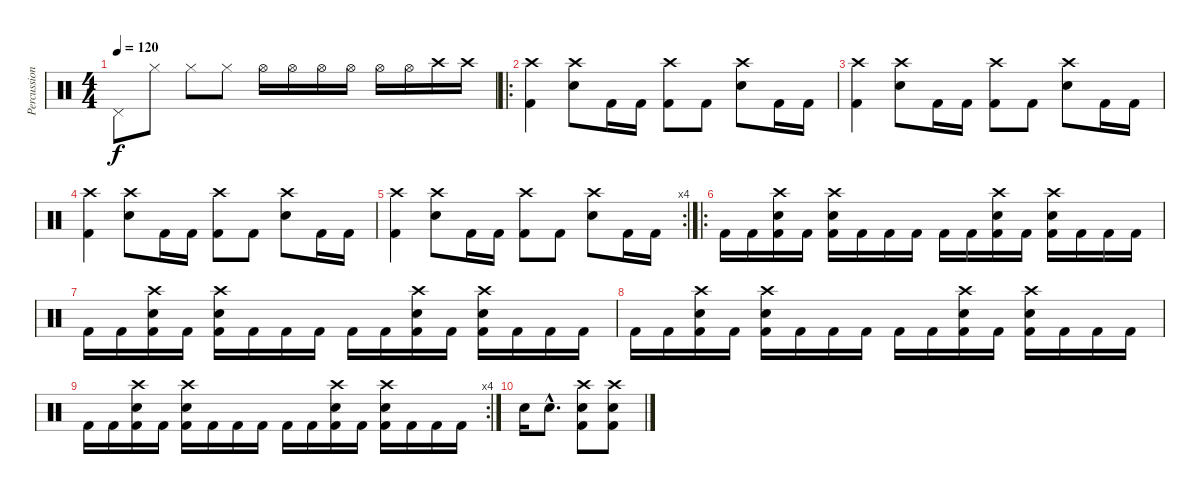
\track ("Percussion" "Percussion") {instrument percussion}
\staff {score}
\articulation defaults
\ts (4 4)
\tempo 120
\clef neutral
\ks c "Pedal Hi-Hat (hit)".8{dy f} "Hi-Hat (closed)".8 "Hi-Hat (closed)".8 "Hi-Hat (closed)".8 "Hi-Hat (open)".16 "Hi-Hat (open)".16 "Hi-Hat (open)".16 "Hi-Hat (open)".16 "Hi-Hat (open)".16 "Hi-Hat (open)".16 "Crash high (hit)".16 "Crash high (hit)".16
|
\ro
("Crash high (hit)" "Kick (hit) 2").4 ("Crash high (hit)" "Snare (hit) 2").8 "Kick (hit) 2".16 "Kick (hit) 2".16 ("Crash high (hit)" "Kick (hit) 2").8 "Kick (hit) 2".8 ("Crash high (hit)" "Snare (hit) 2").8 "Kick (hit) 2".16 "Kick (hit) 2".16 |
("Crash high (hit)" "Kick (hit) 2").4 ("Crash high (hit)" "Snare (hit) 2").8 "Kick (hit) 2".16 "Kick (hit) 2".16 ("Crash high (hit)" "Kick (hit) 2").8 "Kick (hit) 2".8 ("Crash high (hit)" "Snare (hit) 2").8 "Kick (hit) 2".16 "Kick (hit) 2".16 |
("Crash high (hit)" "Kick (hit) 2").4 ("Crash high (hit)" "Snare (hit) 2").8 "Kick (hit) 2".16 "Kick (hit) 2".16 ("Crash high (hit)" "Kick (hit) 2").8 "Kick (hit) 2".8 ("Crash high (hit)" "Snare (hit) 2").8 "Kick (hit) 2".16 "Kick (hit) 2".16 |
\rc 4
("Crash high (hit)" "Kick (hit) 2").4 ("Crash high (hit)" "Snare (hit) 2").8 "Kick (hit) 2".16 "Kick (hit) 2".16 ("Crash high (hit)" "Kick (hit) 2").8 "Kick (hit) 2".8 ("Crash high (hit)" "Snare (hit) 2").8 "Kick (hit) 2".16 "Kick (hit) 2".16 |
\ro "Kick (hit) 2".16 "Kick (hit) 2".16
("Crash high (hit)" "Snare (hit) 2" "Kick (hit) 2").16 "Kick (hit) 2".16 ("Crash high (hit)" "Snare (hit) 2" "Kick (hit) 2").16 "Kick (hit) 2".16 "Kick (hit) 2".16 "Kick (hit) 2".16 "Kick (hit) 2".16 "Kick (hit) 2".16 ("Crash high (hit)" "Snare (hit) 2" "Kick (hit) 2").16 "Kick (hit) 2".16 ("Crash high (hit)" "Snare (hit) 2" "Kick (hit) 2").16 "Kick (hit) 2".16 "Kick (hit) 2".16 "Kick (hit) 2".16 |
"Kick (hit) 2".16 "Kick (hit) 2".16 ("Crash high (hit)" "Snare (hit) 2" "Kick (hit) 2").16 "Kick (hit) 2".16 ("Crash high (hit)" "Snare (hit) 2" "Kick (hit) 2").16 "Kick (hit) 2".16 "Kick (hit) 2".16 "Kick (hit) 2".16 "Kick (hit) 2".16 "Kick (hit) 2".16 ("Crash high (hit)" "Snare (hit) 2" "Kick (hit) 2").16 "Kick (hit) 2".16 ("Crash high (hit)" "Snare (hit) 2" "Kick (hit) 2").16 "Kick (hit) 2".16 "Kick (hit) 2".16 "Kick (hit) 2".16 |
"Kick (hit) 2".16 "Kick (hit) 2".16 ("Crash high (hit)" "Snare (hit) 2" "Kick (hit) 2").16 "Kick (hit) 2".16 ("Crash high (hit)" "Snare (hit) 2" "Kick (hit) 2").16 "Kick (hit) 2".16 "Kick (hit) 2".16 "Kick (hit) 2".16 "Kick (hit) 2".16 "Kick (hit) 2".16 ("Crash high (hit)" "Snare (hit) 2" "Kick (hit) 2").16 "Kick (hit) 2".16 ("Crash high (hit)" "Snare (hit) 2" "Kick (hit) 2").16 "Kick (hit) 2".16 "Kick (hit) 2".16 "Kick (hit) 2".16 |
\rc 4 "Kick (hit) 2".16 "Kick (hit) 2".16
("Crash high (hit)" "Snare (hit) 2" "Kick (hit) 2").16 "Kick (hit) 2".16 ("Crash high (hit)" "Snare (hit) 2" "Kick (hit) 2").16 "Kick (hit) 2".16 "Kick (hit) 2".16 "Kick (hit) 2".16 "Kick (hit) 2".16 "Kick (hit) 2".16 ("Crash high (hit)" "Snare (hit) 2" "Kick (hit) 2").16 "Kick (hit) 2".16 ("Crash high (hit)" "Snare (hit) 2" "Kick (hit) 2").16 "Kick (hit) 2".16 "Kick (hit) 2".16 "Kick (hit) 2".16 |
"Snare (hit) 2".16 "Snare (hit) 2"{hac}.8{d} ("Crash high (hit)" "Snare (hit) 2" "Kick (hit) 2").8 ("Crash high (hit)" "Snare (hit) 2" "Kick (hit) 2").8
